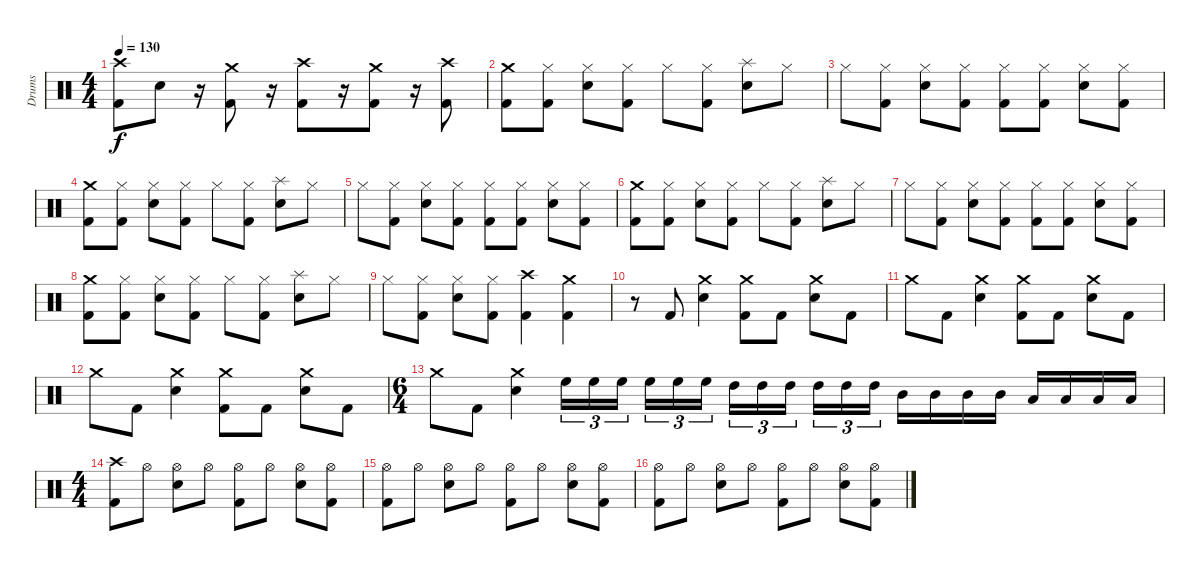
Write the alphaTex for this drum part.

\track ("Drums" "Drums") {instrument percussion}
\staff {score}
\articulation defaults
\ts (4 4)
\tempo 130
\clef neutral
\ks c
("Crash high (hit)" "Kick (hit) 2").8{dy f} "Electric Snare (hit)".8 r.16 ("Crash medium (hit)" "Kick (hit) 2").8 r.16 ("Crash high (hit)" "Kick (hit) 2").8 r.16 ("Crash medium (hit)" "Kick (hit) 2").8 r.16 ("Crash high (hit)" "Kick (hit) 2").8 |
("Crash medium (hit)" "Kick (hit) 2").8 ("Hi-Hat (closed)" "Kick (hit) 2").8 ("Hi-Hat (closed)" "Electric Snare (hit)").8 ("Hi-Hat (closed)" "Kick (hit) 2").8 "Hi-Hat (closed)".8 ("Hi-Hat (closed)" "Kick (hit) 2").8 ("Splash (hit)" "Electric Snare (hit)").8 "Hi-Hat (closed)".8 |
"Hi-Hat (closed)".8 ("Hi-Hat (closed)" "Kick (hit) 2").8 ("Hi-Hat (closed)" "Electric Snare (hit)").8 ("Hi-Hat (closed)" "Kick (hit) 2").8 ("Hi-Hat (closed)" "Kick (hit) 2").8 ("Hi-Hat (closed)" "Kick (hit) 2").8 ("Hi-Hat (closed)" "Electric Snare (hit)").8 ("Hi-Hat (closed)" "Kick (hit) 2").8 |
("Crash medium (hit)" "Kick (hit) 2").8 ("Hi-Hat (closed)" "Kick (hit) 2").8 ("Hi-Hat (closed)" "Electric Snare (hit)").8 ("Hi-Hat (closed)" "Kick (hit) 2").8 "Hi-Hat (closed)".8 ("Hi-Hat (closed)" "Kick (hit) 2").8 ("Splash (hit)" "Electric Snare (hit)").8 "Hi-Hat (closed)".8 |
"Hi-Hat (closed)".8 ("Hi-Hat (closed)" "Kick (hit) 2").8 ("Hi-Hat (closed)" "Electric Snare (hit)").8 ("Hi-Hat (closed)" "Kick (hit) 2").8 ("Hi-Hat (closed)" "Kick (hit) 2").8 ("Hi-Hat (closed)" "Kick (hit) 2").8 ("Hi-Hat (closed)" "Electric Snare (hit)").8 ("Hi-Hat (closed)" "Kick (hit) 2").8 |
("Crash medium (hit)" "Kick (hit) 2").8 ("Hi-Hat (closed)" "Kick (hit) 2").8 ("Hi-Hat (closed)" "Electric Snare (hit)").8 ("Hi-Hat (closed)" "Kick (hit) 2").8 "Hi-Hat (closed)".8 ("Hi-Hat (closed)" "Kick (hit) 2").8 ("Splash (hit)" "Electric Snare (hit)").8 "Hi-Hat (closed)".8 |
"Hi-Hat (closed)".8 ("Hi-Hat (closed)" "Kick (hit) 2").8 ("Hi-Hat (closed)" "Electric Snare (hit)").8 ("Hi-Hat (closed)" "Kick (hit) 2").8 ("Hi-Hat (closed)" "Kick (hit) 2").8 ("Hi-Hat (closed)" "Kick (hit) 2").8 ("Hi-Hat (closed)" "Electric Snare (hit)").8 ("Hi-Hat (closed)" "Kick (hit) 2").8 |
("Crash medium (hit)" "Kick (hit) 2").8 ("Hi-Hat (closed)" "Kick (hit) 2").8 ("Hi-Hat (closed)" "Electric Snare (hit)").8 ("Hi-Hat (closed)" "Kick (hit) 2").8 "Hi-Hat (closed)".8 ("Hi-Hat (closed)" "Kick (hit) 2").8 ("Splash (hit)" "Electric Snare (hit)").8 "Hi-Hat (closed)".8 |
"Hi-Hat (closed)".8 ("Hi-Hat (closed)" "Kick (hit) 2").8 ("Hi-Hat (closed)" "Electric Snare (hit)").8 ("Hi-Hat (closed)" "Kick (hit) 2").8 ("Crash high (hit)" "Kick (hit) 2").4 ("Crash medium (hit)" "Kick (hit) 2").4 |
r.8 "Kick (hit) 2".8 ("Crash medium (hit)" "Electric Snare (hit)").4 ("Crash medium (hit)" "Kick (hit) 2").8 "Kick (hit) 2".8 ("Crash medium (hit)" "Electric Snare (hit)").8 "Kick (hit) 2".8 |
"Crash medium (hit)".8 "Kick (hit) 2".8 ("Crash medium (hit)" "Electric Snare (hit)").4 ("Crash medium (hit)" "Kick (hit) 2").8 "Kick (hit) 2".8 ("Crash medium (hit)" "Electric Snare (hit)").8 "Kick (hit) 2".8 |
"Crash medium (hit)".8 "Kick (hit) 2".8 ("Crash medium (hit)" "Electric Snare (hit)").4 ("Crash medium (hit)" "Kick (hit) 2").8 "Kick (hit) 2".8 ("Crash medium (hit)" "Electric Snare (hit)").8 "Kick (hit) 2".8 |
\ts (6 4)
"Crash medium (hit)".8 "Kick (hit) 2".8 ("Crash medium (hit)" "Electric Snare (hit)").4 "High Floor Tom (hit)".16{tu (3 2)} "High Floor Tom (hit)".16{tu (3 2)} "High Floor Tom (hit)".16{tu (3 2)} "High Floor Tom (hit)".16{tu (3 2)} "High Floor Tom (hit)".16{tu (3 2)} "High Floor Tom (hit)".16{tu (3 2)} "High Tom (hit)".16{tu (3 2)} "High Tom (hit)".16{tu (3 2)} "High Tom (hit)".16{tu (3 2)} "High Tom (hit)".16{tu (3 2)} "High Tom (hit)".16{tu (3 2)} "High Tom (hit)".16{tu (3 2)} "Mid Tom (hit)".16 "Mid Tom (hit)".16 "Mid Tom (hit)".16 "Mid Tom (hit)".16 "Low Tom (hit)".16 "Low Tom (hit)".16 "Low Tom (hit)".16 "Low Tom (hit)".16 |
\ts (4 4)
("Crash high (hit)" "Kick (hit) 2").8 "Hi-Hat (open)".8 ("Hi-Hat (open)" "Electric Snare (hit)").8 "Hi-Hat (open)".8 ("Hi-Hat (open)" "Kick (hit) 2").8 "Hi-Hat (open)".8 ("Hi-Hat (open)" "Electric Snare (hit)").8 ("Hi-Hat (open)" "Kick (hit) 2").8 |
("Hi-Hat (open)" "Kick (hit) 2").8 "Hi-Hat (open)".8 ("Hi-Hat (open)" "Electric Snare (hit)").8 "Hi-Hat (open)".8 ("Hi-Hat (open)" "Kick (hit) 2").8 "Hi-Hat (open)".8 ("Hi-Hat (open)" "Electric Snare (hit)").8 ("Hi-Hat (open)" "Kick (hit) 2").8 |
("Hi-Hat (open)" "Kick (hit) 2").8 "Hi-Hat (open)".8 ("Hi-Hat (open)" "Electric Snare (hit)").8 "Hi-Hat (open)".8 ("Hi-Hat (open)" "Kick (hit) 2").8 "Hi-Hat (open)".8 ("Hi-Hat (open)" "Electric Snare (hit)").8 ("Hi-Hat (open)" "Kick (hit) 2").8
